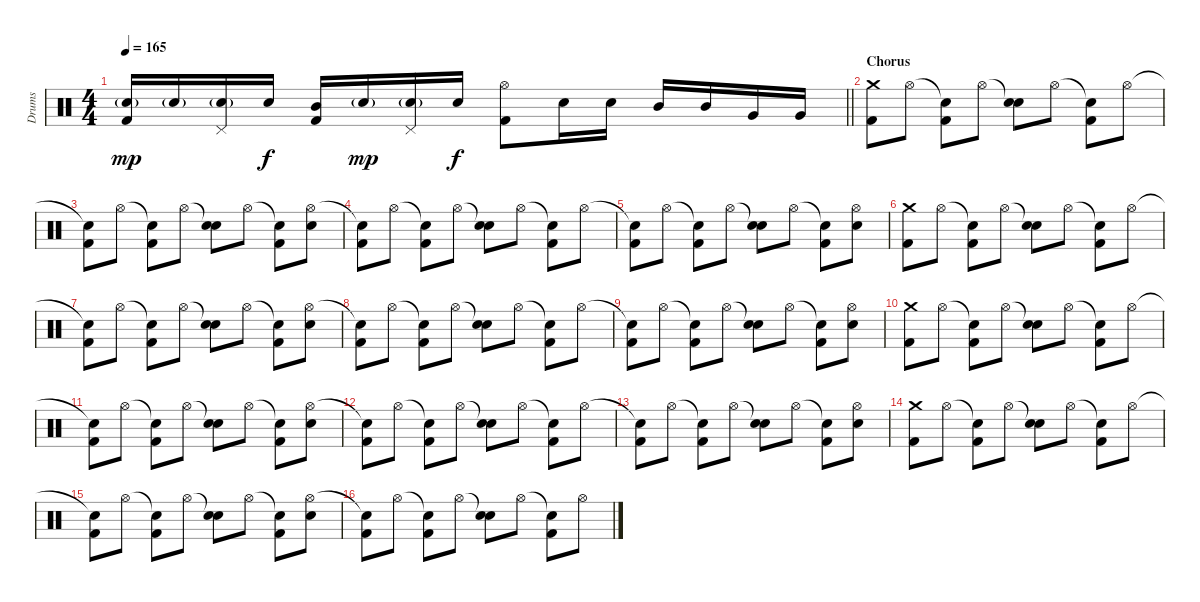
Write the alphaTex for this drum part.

\track ("Drums" "Drums") {instrument percussion}
\staff {score}
\articulation defaults
\ts (4 4)
\tempo 165
\clef neutral
\barLineRight lightlight
\ks c
("Electric Snare (hit)"{g} "Kick (hit) 2").16{dy mp} "Electric Snare (hit)"{g}.16 ("Pedal Hi-Hat (hit)" "Electric Snare (hit)"{g}).16 "Electric Snare (hit)".16{dy f} ("Mid Tom (hit)" "Kick (hit) 2").16 "Electric Snare (hit)"{g}.16{dy mp} ("Pedal Hi-Hat (hit)" "Electric Snare (hit)"{g}).16 "Electric Snare (hit)".16{dy f} ("Hi-Hat (open)" "Kick (hit) 2").8 "Electric Snare (hit)".16 "Electric Snare (hit)".16 "Mid Tom (hit)".16 "Mid Tom (hit)".16 "Very Low Tom (hit)".16 "Very Low Tom (hit)".16 |
\section ("" "Chorus")
("Crash medium (hit)" "Kick (hit) 2").8 "Hi-Hat (open)".8 ("Snare (hit)"{t} "Kick (hit) 2").8 "Hi-Hat (open)".8 ("Snare (hit)"{t} "Electric Snare (hit)").8 "Hi-Hat (open)".8 ("Snare (hit)"{t} "Kick (hit) 2").8 "Hi-Hat (open)".8 |
("Snare (hit)"{t} "Kick (hit) 2").8 "Hi-Hat (open)".8 ("Snare (hit)"{t} "Kick (hit) 2").8 "Hi-Hat (open)".8 ("Snare (hit)"{t} "Electric Snare (hit)").8 "Hi-Hat (open)".8 ("Snare (hit)"{t} "Kick (hit) 2").8 ("Hi-Hat (open)" "Electric Snare (hit)").8 |
("Snare (hit)"{t} "Kick (hit) 2").8 "Hi-Hat (open)".8 ("Snare (hit)"{t} "Kick (hit) 2").8 "Hi-Hat (open)".8 ("Snare (hit)"{t} "Electric Snare (hit)").8 "Hi-Hat (open)".8 ("Snare (hit)"{t} "Kick (hit) 2").8 "Hi-Hat (open)".8 |
("Snare (hit)"{t} "Kick (hit) 2").8 "Hi-Hat (open)".8 ("Snare (hit)"{t} "Kick (hit) 2").8 "Hi-Hat (open)".8 ("Snare (hit)"{t} "Electric Snare (hit)").8 "Hi-Hat (open)".8 ("Snare (hit)"{t} "Kick (hit) 2").8 ("Hi-Hat (open)" "Electric Snare (hit)").8 |
("Crash medium (hit)" "Kick (hit) 2").8 "Hi-Hat (open)".8 ("Snare (hit)"{t} "Kick (hit) 2").8 "Hi-Hat (open)".8 ("Snare (hit)"{t} "Electric Snare (hit)").8 "Hi-Hat (open)".8 ("Snare (hit)"{t} "Kick (hit) 2").8 "Hi-Hat (open)".8 |
("Snare (hit)"{t} "Kick (hit) 2").8 "Hi-Hat (open)".8 ("Snare (hit)"{t} "Kick (hit) 2").8 "Hi-Hat (open)".8 ("Snare (hit)"{t} "Electric Snare (hit)").8 "Hi-Hat (open)".8 ("Snare (hit)"{t} "Kick (hit) 2").8 ("Hi-Hat (open)" "Electric Snare (hit)").8 |
("Snare (hit)"{t} "Kick (hit) 2").8 "Hi-Hat (open)".8 ("Snare (hit)"{t} "Kick (hit) 2").8 "Hi-Hat (open)".8 ("Snare (hit)"{t} "Electric Snare (hit)").8 "Hi-Hat (open)".8 ("Snare (hit)"{t} "Kick (hit) 2").8 "Hi-Hat (open)".8 |
("Snare (hit)"{t} "Kick (hit) 2").8 "Hi-Hat (open)".8 ("Snare (hit)"{t} "Kick (hit) 2").8 "Hi-Hat (open)".8 ("Snare (hit)"{t} "Electric Snare (hit)").8 "Hi-Hat (open)".8 ("Snare (hit)"{t} "Kick (hit) 2").8 ("Hi-Hat (open)" "Electric Snare (hit)").8 |
("Crash medium (hit)" "Kick (hit) 2").8 "Hi-Hat (open)".8 ("Snare (hit)"{t} "Kick (hit) 2").8 "Hi-Hat (open)".8 ("Snare (hit)"{t} "Electric Snare (hit)").8 "Hi-Hat (open)".8 ("Snare (hit)"{t} "Kick (hit) 2").8 "Hi-Hat (open)".8 |
("Snare (hit)"{t} "Kick (hit) 2").8 "Hi-Hat (open)".8 ("Snare (hit)"{t} "Kick (hit) 2").8 "Hi-Hat (open)".8 ("Snare (hit)"{t} "Electric Snare (hit)").8 "Hi-Hat (open)".8 ("Snare (hit)"{t} "Kick (hit) 2").8 ("Hi-Hat (open)" "Electric Snare (hit)").8 |
("Snare (hit)"{t} "Kick (hit) 2").8 "Hi-Hat (open)".8 ("Snare (hit)"{t} "Kick (hit) 2").8 "Hi-Hat (open)".8 ("Snare (hit)"{t} "Electric Snare (hit)").8 "Hi-Hat (open)".8 ("Snare (hit)"{t} "Kick (hit) 2").8 "Hi-Hat (open)".8 |
("Snare (hit)"{t} "Kick (hit) 2").8 "Hi-Hat (open)".8 ("Snare (hit)"{t} "Kick (hit) 2").8 "Hi-Hat (open)".8 ("Snare (hit)"{t} "Electric Snare (hit)").8 "Hi-Hat (open)".8 ("Snare (hit)"{t} "Kick (hit) 2").8 ("Hi-Hat (open)" "Electric Snare (hit)").8 |
("Crash medium (hit)" "Kick (hit) 2").8 "Hi-Hat (open)".8 ("Snare (hit)"{t} "Kick (hit) 2").8 "Hi-Hat (open)".8 ("Snare (hit)"{t} "Electric Snare (hit)").8 "Hi-Hat (open)".8 ("Snare (hit)"{t} "Kick (hit) 2").8 "Hi-Hat (open)".8 |
("Snare (hit)"{t} "Kick (hit) 2").8 "Hi-Hat (open)".8 ("Snare (hit)"{t} "Kick (hit) 2").8 "Hi-Hat (open)".8 ("Snare (hit)"{t} "Electric Snare (hit)").8 "Hi-Hat (open)".8 ("Snare (hit)"{t} "Kick (hit) 2").8 ("Hi-Hat (open)" "Electric Snare (hit)").8 |
("Snare (hit)"{t} "Kick (hit) 2").8 "Hi-Hat (open)".8 ("Snare (hit)"{t} "Kick (hit) 2").8 "Hi-Hat (open)".8 ("Snare (hit)"{t} "Electric Snare (hit)").8 "Hi-Hat (open)".8 ("Snare (hit)"{t} "Kick (hit) 2").8 "Hi-Hat (open)".8
